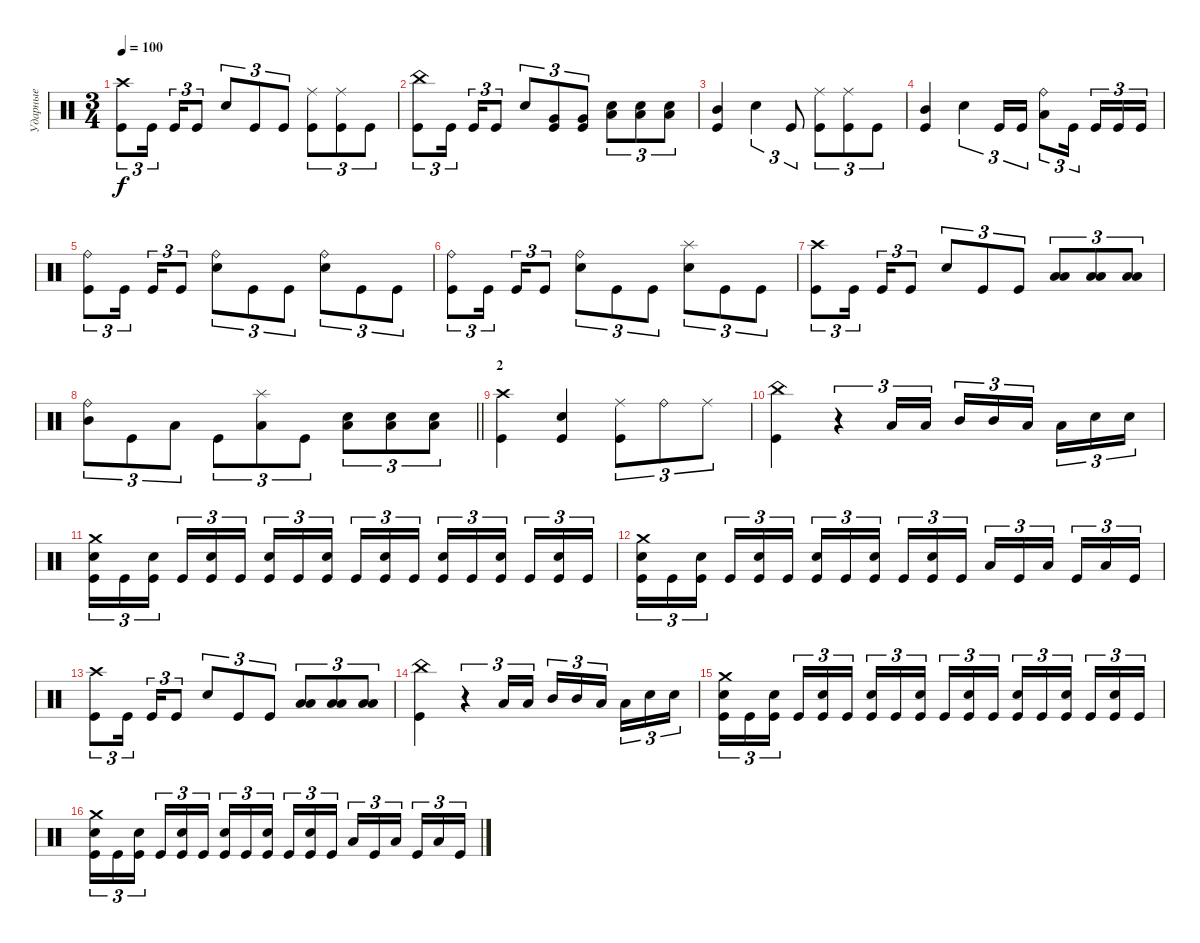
\track ("Ударные" "Ударные") {instrument percussion}
\staff {score}
\articulation defaults
\ts (3 4)
\tempo 100
\clef neutral
\ks c
("Crash high (hit)" "Kick (hit)").8{tu (3 2) dy f} "Kick (hit)".16{tu (3 2) beam splitsecondary} "Kick (hit)".16{tu (3 2)} "Kick (hit)".8{tu (3 2)} "Electric Snare (hit)".8{tu (3 2)} "Kick (hit)".8{tu (3 2)} "Kick (hit)".8{tu (3 2)} ("Ride (middle)" "Kick (hit)").8{tu (3 2)} ("Ride (middle)" "Kick (hit)").8{tu (3 2)} "Kick (hit)".8{tu (3 2)} |
("China (hit)" "Kick (hit)").8{tu (3 2)} "Kick (hit)".16{tu (3 2) beam splitsecondary} "Kick (hit)".16{tu (3 2)} "Kick (hit)".8{tu (3 2)} "Electric Snare (hit)".8{tu (3 2)} ("Very Low Tom (hit)" "Kick (hit)").8{tu (3 2)} ("Very Low Tom (hit)" "Kick (hit)").8{tu (3 2)} ("Low Floor Tom (hit)" "Electric Snare (hit)").8{tu (3 2)} ("Low Floor Tom (hit)" "Electric Snare (hit)").8{tu (3 2)} ("Low Floor Tom (hit)" "Electric Snare (hit)").8{tu (3 2)} |
("Mid Tom (hit)" "Kick (hit)").4 "Electric Snare (hit)".4{tu (3 2)} "Kick (hit)".8{tu (3 2)} ("Ride (middle)" "Kick (hit)").8{tu (3 2)} ("Ride (middle)" "Kick (hit)").8{tu (3 2)} "Kick (hit)".8{tu (3 2)} |
("Mid Tom (hit)" "Kick (hit)").4 "Electric Snare (hit)".4{tu (3 2)} "Kick (hit)".16{tu (3 2)} "Kick (hit)".16{tu (3 2)} ("Ride (bell)" "Low Floor Tom (hit)").8{tu (3 2)} "Kick (hit)".16{tu (3 2) beam splitsecondary} "Kick (hit)".16{tu (3 2)} "Kick (hit)".16{tu (3 2)} "Kick (hit)".16{tu (3 2)} |
("Ride (bell)" "Kick (hit)").8{tu (3 2)} "Kick (hit)".16{tu (3 2) beam splitsecondary} "Kick (hit)".16{tu (3 2)} "Kick (hit)".8{tu (3 2)} ("Ride (bell)" "Electric Snare (hit)").8{tu (3 2)} "Kick (hit)".8{tu (3 2)} "Kick (hit)".8{tu (3 2)} ("Ride (bell)" "Electric Snare (hit)").8{tu (3 2)} "Kick (hit)".8{tu (3 2)} "Kick (hit)".8{tu (3 2)} |
("Ride (bell)" "Kick (hit)").8{tu (3 2)} "Kick (hit)".16{tu (3 2) beam splitsecondary} "Kick (hit)".16{tu (3 2)} "Kick (hit)".8{tu (3 2)} ("Ride (bell)" "Electric Snare (hit)").8{tu (3 2)} "Kick (hit)".8{tu (3 2)} "Kick (hit)".8{tu (3 2)} ("Splash (hit)" "Electric Snare (hit)").8{tu (3 2)} "Kick (hit)".8{tu (3 2)} "Kick (hit)".8{tu (3 2)} |
("Crash high (hit)" "Kick (hit)").8{tu (3 2)} "Kick (hit)".16{tu (3 2) beam splitsecondary} "Kick (hit)".16{tu (3 2)} "Kick (hit)".8{tu (3 2)} "Electric Snare (hit)".8{tu (3 2)} "Kick (hit)".8{tu (3 2)} "Kick (hit)".8{tu (3 2)} ("Low Floor Tom (hit)" "Low Tom (hit)").8{tu (3 2)} ("Low Floor Tom (hit)" "Low Tom (hit)").8{tu (3 2)} ("Low Floor Tom (hit)" "Low Tom (hit)").8{tu (3 2)} |
\barLineRight lightlight
("Ride (bell)" "Mid Tom (hit)").8{tu (3 2)} "Kick (hit)".8{tu (3 2)} "Low Tom (hit)".8{tu (3 2)} "Kick (hit)".8{tu (3 2)} ("Splash (hit)" "Low Floor Tom (hit)").8{tu (3 2)} "Kick (hit)".8{tu (3 2)} ("Low Floor Tom (hit)" "Electric Snare (hit)").8{tu (3 2)} ("Low Floor Tom (hit)" "Electric Snare (hit)").8{tu (3 2)} ("Low Floor Tom (hit)" "Electric Snare (hit)").8{tu (3 2)} |
\section ("" "2")
("Crash high (hit)" "Kick (hit)").4 ("Electric Snare (hit)" "Kick (hit)").4 ("Ride (middle)" "Kick (hit)").8{tu (3 2)} "Ride (bell)".8{tu (3 2)} "Ride (middle)".8{tu (3 2)} |
("China (hit)" "Kick (hit)").4 r.4{tu (3 2)} "Low Tom (hit)".16{tu (3 2)} "Low Tom (hit)".16{tu (3 2)} "Mid Tom (hit)".16{tu (3 2)} "Mid Tom (hit)".16{tu (3 2)} "Low Tom (hit)".16{tu (3 2) beam splitsecondary} "Low Tom (hit)".16{tu (3 2)} "Electric Snare (hit)".16{tu (3 2)} "Electric Snare (hit)".16{tu (3 2)} |
("Crash medium (hit)" "Electric Snare (hit)" "Kick (hit)").16{tu (3 2)} "Kick (hit)".16{tu (3 2)} ("Electric Snare (hit)" "Kick (hit)").16{tu (3 2) beam splitsecondary} "Kick (hit)".16{tu (3 2)} ("Electric Snare (hit)" "Kick (hit)").16{tu (3 2)} "Kick (hit)".16{tu (3 2)} ("Electric Snare (hit)" "Kick (hit)").16{tu (3 2)} "Kick (hit)".16{tu (3 2)} ("Electric Snare (hit)" "Kick (hit)").16{tu (3 2) beam splitsecondary} "Kick (hit)".16{tu (3 2)} ("Electric Snare (hit)" "Kick (hit)").16{tu (3 2)} "Kick (hit)".16{tu (3 2)} ("Electric Snare (hit)" "Kick (hit)").16{tu (3 2)} "Kick (hit)".16{tu (3 2)} ("Electric Snare (hit)" "Kick (hit)").16{tu (3 2) beam splitsecondary} "Kick (hit)".16{tu (3 2)} ("Electric Snare (hit)" "Kick (hit)").16{tu (3 2)} "Kick (hit)".16{tu (3 2)} |
("Crash medium (hit)" "Electric Snare (hit)" "Kick (hit)").16{tu (3 2)} "Kick (hit)".16{tu (3 2)} ("Electric Snare (hit)" "Kick (hit)").16{tu (3 2) beam splitsecondary} "Kick (hit)".16{tu (3 2)} ("Electric Snare (hit)" "Kick (hit)").16{tu (3 2)} "Kick (hit)".16{tu (3 2)} ("Electric Snare (hit)" "Kick (hit)").16{tu (3 2)} "Kick (hit)".16{tu (3 2)} ("Electric Snare (hit)" "Kick (hit)").16{tu (3 2) beam splitsecondary} "Kick (hit)".16{tu (3 2)} ("Electric Snare (hit)" "Kick (hit)").16{tu (3 2)} "Kick (hit)".16{tu (3 2)} "Low Tom (hit)".16{tu (3 2)} "Kick (hit)".16{tu (3 2)} "Low Floor Tom (hit)".16{tu (3 2) beam splitsecondary} "Kick (hit)".16{tu (3 2)} "Low Floor Tom (hit)".16{tu (3 2)} "Kick (hit)".16{tu (3 2)} |
("Crash high (hit)" "Kick (hit)").8{tu (3 2)} "Kick (hit)".16{tu (3 2) beam splitsecondary} "Kick (hit)".16{tu (3 2)} "Kick (hit)".8{tu (3 2)} "Electric Snare (hit)".8{tu (3 2)} "Kick (hit)".8{tu (3 2)} "Kick (hit)".8{tu (3 2)} ("Low Floor Tom (hit)" "Low Tom (hit)").8{tu (3 2)} ("Low Floor Tom (hit)" "Low Tom (hit)").8{tu (3 2)} ("Low Floor Tom (hit)" "Low Tom (hit)").8{tu (3 2)} |
("China (hit)" "Kick (hit)").4 r.4{tu (3 2)} "Low Tom (hit)".16{tu (3 2)} "Low Tom (hit)".16{tu (3 2)} "Mid Tom (hit)".16{tu (3 2)} "Mid Tom (hit)".16{tu (3 2)} "Low Tom (hit)".16{tu (3 2) beam splitsecondary} "Low Tom (hit)".16{tu (3 2)} "Electric Snare (hit)".16{tu (3 2)} "Electric Snare (hit)".16{tu (3 2)} |
("Crash medium (hit)" "Electric Snare (hit)" "Kick (hit)").16{tu (3 2)} "Kick (hit)".16{tu (3 2)} ("Electric Snare (hit)" "Kick (hit)").16{tu (3 2) beam splitsecondary} "Kick (hit)".16{tu (3 2)} ("Electric Snare (hit)" "Kick (hit)").16{tu (3 2)} "Kick (hit)".16{tu (3 2)} ("Electric Snare (hit)" "Kick (hit)").16{tu (3 2)} "Kick (hit)".16{tu (3 2)} ("Electric Snare (hit)" "Kick (hit)").16{tu (3 2) beam splitsecondary} "Kick (hit)".16{tu (3 2)} ("Electric Snare (hit)" "Kick (hit)").16{tu (3 2)} "Kick (hit)".16{tu (3 2)} ("Electric Snare (hit)" "Kick (hit)").16{tu (3 2)} "Kick (hit)".16{tu (3 2)} ("Electric Snare (hit)" "Kick (hit)").16{tu (3 2) beam splitsecondary} "Kick (hit)".16{tu (3 2)} ("Electric Snare (hit)" "Kick (hit)").16{tu (3 2)} "Kick (hit)".16{tu (3 2)} |
("Crash medium (hit)" "Electric Snare (hit)" "Kick (hit)").16{tu (3 2)} "Kick (hit)".16{tu (3 2)} ("Electric Snare (hit)" "Kick (hit)").16{tu (3 2) beam splitsecondary} "Kick (hit)".16{tu (3 2)} ("Electric Snare (hit)" "Kick (hit)").16{tu (3 2)} "Kick (hit)".16{tu (3 2)} ("Electric Snare (hit)" "Kick (hit)").16{tu (3 2)} "Kick (hit)".16{tu (3 2)} ("Electric Snare (hit)" "Kick (hit)").16{tu (3 2) beam splitsecondary} "Kick (hit)".16{tu (3 2)} ("Electric Snare (hit)" "Kick (hit)").16{tu (3 2)} "Kick (hit)".16{tu (3 2)} "Low Tom (hit)".16{tu (3 2)} "Kick (hit)".16{tu (3 2)} "Low Floor Tom (hit)".16{tu (3 2) beam splitsecondary} "Kick (hit)".16{tu (3 2)} "Low Floor Tom (hit)".16{tu (3 2)} "Kick (hit)".16{tu (3 2)}
